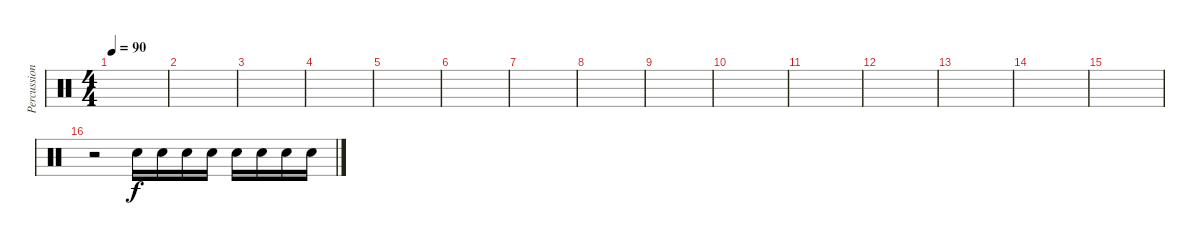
\track ("Percussion" "Percussion") {instrument percussion}
\staff {score}
\articulation defaults
\ts (4 4)
\tempo 90
\clef neutral
\ks c
|
|
|
|
|
|
|
|
|
|
|
|
|
|
|
r.2 "Snare (hit) 2".16 "Electric Snare (hit)".16 "Snare (hit) 2".16 "Electric Snare (hit)".16 "Snare (hit) 2".16 "Electric Snare (hit)".16 "Snare (hit) 2".16 "Electric Snare (hit)".16
